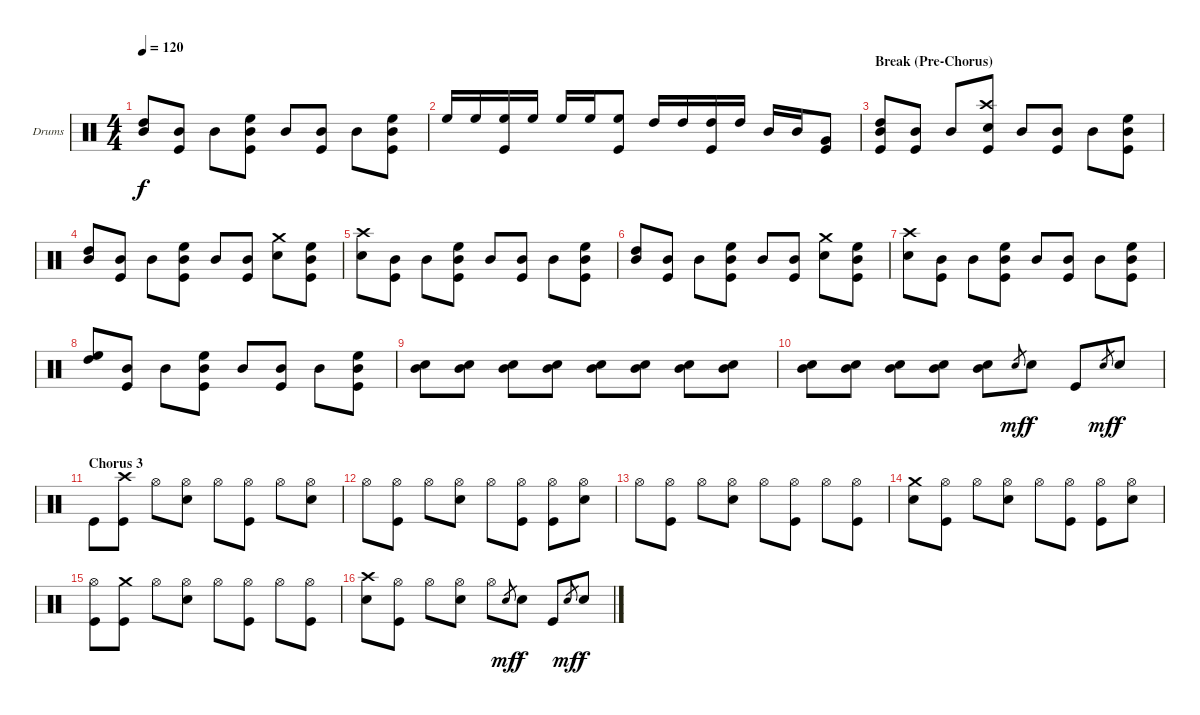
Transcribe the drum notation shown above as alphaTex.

\bracketExtendMode groupsimilarinstruments
\firstSystemTrackNameOrientation horizontal
\otherSystemsTrackNameOrientation horizontal
\track ("Drumkit" "Drums") {instrument percussion}
\staff {score}
\articulation defaults
\ts (4 4)
\tempo 120
\clef neutral
\ks c
("High Tom (hit)" "Mid Tom (hit)").8{dy f} ("Mid Tom (hit)" "Kick (hit)").8 "Mid Tom (hit)".8 ("High Floor Tom (hit)" "Mid Tom (hit)" "Kick (hit)").8 "Mid Tom (hit)".8 ("Mid Tom (hit)" "Kick (hit)").8 "Mid Tom (hit)".8 ("High Floor Tom (hit)" "Mid Tom (hit)" "Kick (hit)").8 |
"High Floor Tom (hit)".16 "High Floor Tom (hit)".16 ("High Floor Tom (hit)" "Kick (hit)").16 "High Floor Tom (hit)".16 "High Floor Tom (hit)".16 "High Floor Tom (hit)".16 ("High Floor Tom (hit)" "Kick (hit)").8 "High Tom (hit)".16 "High Tom (hit)".16 ("High Tom (hit)" "Kick (hit)").16 "High Tom (hit)".16 "Mid Tom (hit)".16 "Mid Tom (hit)".16 ("Very Low Tom (hit)" "Kick (hit)").8 |
\section ("" "Break (Pre-Chorus)")
("High Tom (hit)" "Mid Tom (hit)" "Kick (hit)").8 ("Mid Tom (hit)" "Kick (hit)").8 "Mid Tom (hit)".8 ("Crash high (hit)" "Snare (hit) 2" "Kick (hit)").8 "Mid Tom (hit)".8 ("Mid Tom (hit)" "Kick (hit)").8 "Mid Tom (hit)".8 ("High Floor Tom (hit)" "Mid Tom (hit)" "Kick (hit)").8 |
("High Tom (hit)" "Mid Tom (hit)").8 ("Mid Tom (hit)" "Kick (hit)").8 "Mid Tom (hit)".8 ("High Floor Tom (hit)" "Mid Tom (hit)" "Kick (hit)").8 "Mid Tom (hit)".8 ("Mid Tom (hit)" "Kick (hit)").8 ("Crash medium (hit)" "Snare (hit) 2").8 ("High Floor Tom (hit)" "Mid Tom (hit)" "Kick (hit)").8 |
("Crash high (hit)" "Snare (hit) 2").8 ("Mid Tom (hit)" "Kick (hit)").8 "Mid Tom (hit)".8 ("High Floor Tom (hit)" "Mid Tom (hit)" "Kick (hit)").8 "Mid Tom (hit)".8 ("Mid Tom (hit)" "Kick (hit)").8 "Mid Tom (hit)".8 ("High Floor Tom (hit)" "Mid Tom (hit)" "Kick (hit)").8 |
("High Tom (hit)" "Mid Tom (hit)").8 ("Mid Tom (hit)" "Kick (hit)").8 "Mid Tom (hit)".8 ("High Floor Tom (hit)" "Mid Tom (hit)" "Kick (hit)").8 "Mid Tom (hit)".8 ("Mid Tom (hit)" "Kick (hit)").8 ("Crash medium (hit)" "Snare (hit) 2").8 ("High Floor Tom (hit)" "Mid Tom (hit)" "Kick (hit)").8 |
("Crash high (hit)" "Snare (hit) 2").8 ("Mid Tom (hit)" "Kick (hit)").8 "Mid Tom (hit)".8 ("High Floor Tom (hit)" "Mid Tom (hit)" "Kick (hit)").8 "Mid Tom (hit)".8 ("Mid Tom (hit)" "Kick (hit)").8 "Mid Tom (hit)".8 ("High Floor Tom (hit)" "Mid Tom (hit)" "Kick (hit)").8 |
("High Tom (hit)" "High Floor Tom (hit)").8 ("Mid Tom (hit)" "Kick (hit)").8 "Mid Tom (hit)".8 ("High Floor Tom (hit)" "Mid Tom (hit)" "Kick (hit)").8 "Mid Tom (hit)".8 ("Mid Tom (hit)" "Kick (hit)").8 "Mid Tom (hit)".8 ("High Floor Tom (hit)" "Mid Tom (hit)" "Kick (hit)").8 |
("Mid Tom (hit)" "Snare (hit) 2").8 ("Mid Tom (hit)" "Snare (hit) 2").8 ("Mid Tom (hit)" "Snare (hit) 2").8 ("Mid Tom (hit)" "Snare (hit) 2").8 ("Mid Tom (hit)" "Snare (hit) 2").8 ("Mid Tom (hit)" "Snare (hit) 2").8 ("Mid Tom (hit)" "Snare (hit) 2").8 ("Mid Tom (hit)" "Snare (hit) 2").8 |
("Mid Tom (hit)" "Snare (hit) 2").8 ("Mid Tom (hit)" "Snare (hit) 2").8 ("Mid Tom (hit)" "Snare (hit) 2").8 ("Mid Tom (hit)" "Snare (hit) 2").8 ("Mid Tom (hit)" "Snare (hit) 2").8 "Snare (hit) 2".8{gr dy mf} "Snare (hit) 2".8{dy f} "Kick (hit)".8 "Snare (hit) 2".8{gr dy mf} "Snare (hit) 2".8{dy f} |
\section ("" "Chorus 3")
"Kick (hit)".8 ("Crash high (hit)" "Kick (hit)").8 "Hi-Hat (open)".8 ("Hi-Hat (open)" "Snare (hit) 2").8 "Hi-Hat (open)".8 ("Hi-Hat (open)" "Kick (hit)").8 "Hi-Hat (open)".8 ("Hi-Hat (open)" "Snare (hit) 2").8 |
"Hi-Hat (open)".8 ("Hi-Hat (open)" "Kick (hit)").8 "Hi-Hat (open)".8 ("Hi-Hat (open)" "Snare (hit) 2").8 "Hi-Hat (open)".8 ("Hi-Hat (open)" "Kick (hit)").8 ("Hi-Hat (open)" "Kick (hit)").8 ("Hi-Hat (open)" "Snare (hit) 2").8 |
"Hi-Hat (open)".8 ("Hi-Hat (open)" "Kick (hit)").8 "Hi-Hat (open)".8 ("Hi-Hat (open)" "Snare (hit) 2").8 "Hi-Hat (open)".8 ("Hi-Hat (open)" "Kick (hit)").8 "Hi-Hat (open)".8 ("Hi-Hat (open)" "Kick (hit)").8 |
("Crash medium (hit)" "Snare (hit) 2").8 ("Hi-Hat (open)" "Kick (hit)").8 "Hi-Hat (open)".8 ("Hi-Hat (open)" "Snare (hit) 2").8 "Hi-Hat (open)".8 ("Hi-Hat (open)" "Kick (hit)").8 ("Hi-Hat (open)" "Kick (hit)").8 ("Hi-Hat (open)" "Snare (hit) 2").8 |
("Hi-Hat (open)" "Kick (hit)").8 ("Crash medium (hit)" "Kick (hit)").8 "Hi-Hat (open)".8 ("Hi-Hat (open)" "Snare (hit) 2").8 "Hi-Hat (open)".8 ("Hi-Hat (open)" "Kick (hit)").8 "Hi-Hat (open)".8 ("Hi-Hat (open)" "Kick (hit)").8 |
("Crash high (hit)" "Snare (hit) 2").8 ("Hi-Hat (open)" "Kick (hit)").8 "Hi-Hat (open)".8 ("Hi-Hat (open)" "Snare (hit) 2").8 "Hi-Hat (open)".8 "Snare (hit) 2".8{gr dy mf} "Snare (hit) 2".8{dy f} "Kick (hit)".8 "Snare (hit) 2".8{gr dy mf} "Snare (hit) 2".8{dy f}
